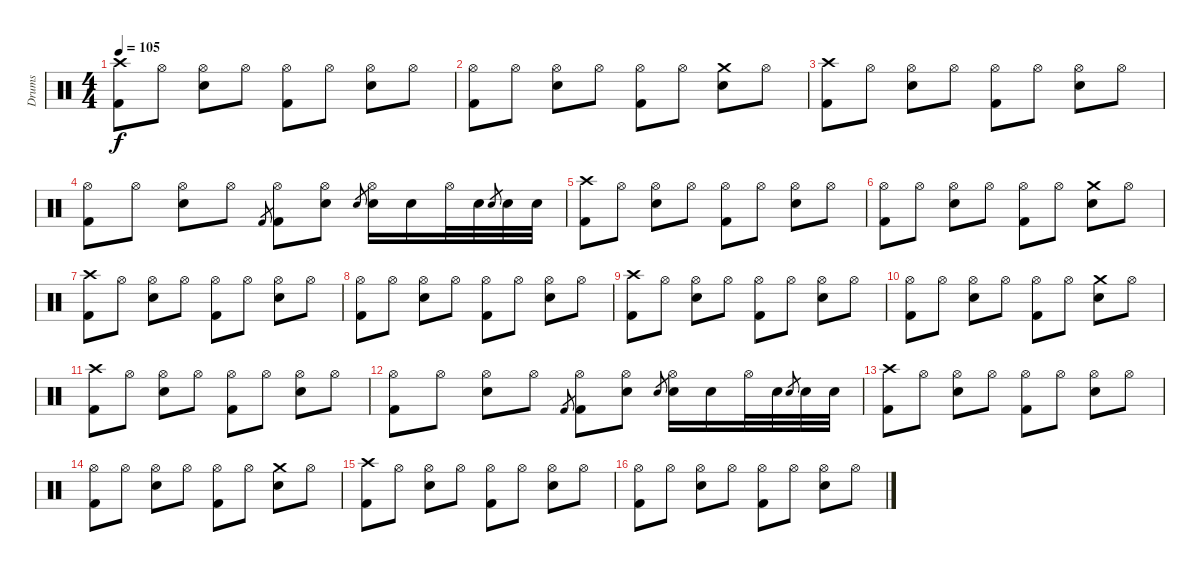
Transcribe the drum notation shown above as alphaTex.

\track ("Drums" "Drums") {instrument percussion}
\staff {score}
\articulation defaults
\ts (4 4)
\tempo 105
\clef neutral
\ks c
("Crash high (hit)" "Kick (hit) 2").8{dy f} "Hi-Hat (open)".8 ("Hi-Hat (open)" "Snare (hit) 2").8 "Hi-Hat (open)".8 ("Hi-Hat (open)" "Kick (hit) 2").8 "Hi-Hat (open)".8 ("Hi-Hat (open)" "Snare (hit) 2").8 "Hi-Hat (open)".8 |
("Hi-Hat (open)" "Kick (hit) 2").8 "Hi-Hat (open)".8 ("Hi-Hat (open)" "Snare (hit) 2").8 "Hi-Hat (open)".8 ("Hi-Hat (open)" "Kick (hit) 2").8 "Hi-Hat (open)".8 ("Crash medium (hit)" "Snare (hit) 2").8 "Hi-Hat (open)".8 |
("Crash high (hit)" "Kick (hit) 2").8 "Hi-Hat (open)".8 ("Hi-Hat (open)" "Snare (hit) 2").8 "Hi-Hat (open)".8 ("Hi-Hat (open)" "Kick (hit) 2").8 "Hi-Hat (open)".8 ("Hi-Hat (open)" "Snare (hit) 2").8 "Hi-Hat (open)".8 |
("Hi-Hat (open)" "Kick (hit) 2").8 "Hi-Hat (open)".8 ("Hi-Hat (open)" "Snare (hit) 2").8 "Hi-Hat (open)".8 "Kick (hit) 2".8{gr} ("Hi-Hat (open)" "Kick (hit) 2").8 ("Hi-Hat (open)" "Snare (hit) 2").8 "Snare (hit) 2".8{gr} ("Hi-Hat (open)" "Snare (hit) 2").16 "Snare (hit) 2".16 "Hi-Hat (open)".32 "Snare (hit) 2".32 "Snare (hit) 2".8{gr} "Snare (hit) 2".32 "Snare (hit) 2".32 |
("Crash high (hit)" "Kick (hit) 2").8 "Hi-Hat (open)".8 ("Hi-Hat (open)" "Snare (hit) 2").8 "Hi-Hat (open)".8 ("Hi-Hat (open)" "Kick (hit) 2").8 "Hi-Hat (open)".8 ("Hi-Hat (open)" "Snare (hit) 2").8 "Hi-Hat (open)".8 |
("Hi-Hat (open)" "Kick (hit) 2").8 "Hi-Hat (open)".8 ("Hi-Hat (open)" "Snare (hit) 2").8 "Hi-Hat (open)".8 ("Hi-Hat (open)" "Kick (hit) 2").8 "Hi-Hat (open)".8 ("Crash medium (hit)" "Snare (hit) 2").8 "Hi-Hat (open)".8 |
("Crash high (hit)" "Kick (hit) 2").8 "Hi-Hat (open)".8 ("Hi-Hat (open)" "Snare (hit) 2").8 "Hi-Hat (open)".8 ("Hi-Hat (open)" "Kick (hit) 2").8 "Hi-Hat (open)".8 ("Hi-Hat (open)" "Snare (hit) 2").8 "Hi-Hat (open)".8 |
("Hi-Hat (open)" "Kick (hit) 2").8 "Hi-Hat (open)".8 ("Hi-Hat (open)" "Snare (hit) 2").8 "Hi-Hat (open)".8 ("Hi-Hat (open)" "Kick (hit) 2").8 "Hi-Hat (open)".8 ("Hi-Hat (open)" "Snare (hit) 2").8 "Hi-Hat (open)".8 |
("Crash high (hit)" "Kick (hit) 2").8 "Hi-Hat (open)".8 ("Hi-Hat (open)" "Snare (hit) 2").8 "Hi-Hat (open)".8 ("Hi-Hat (open)" "Kick (hit) 2").8 "Hi-Hat (open)".8 ("Hi-Hat (open)" "Snare (hit) 2").8 "Hi-Hat (open)".8 |
("Hi-Hat (open)" "Kick (hit) 2").8 "Hi-Hat (open)".8 ("Hi-Hat (open)" "Snare (hit) 2").8 "Hi-Hat (open)".8 ("Hi-Hat (open)" "Kick (hit) 2").8 "Hi-Hat (open)".8 ("Crash medium (hit)" "Snare (hit) 2").8 "Hi-Hat (open)".8 |
("Crash high (hit)" "Kick (hit) 2").8 "Hi-Hat (open)".8 ("Hi-Hat (open)" "Snare (hit) 2").8 "Hi-Hat (open)".8 ("Hi-Hat (open)" "Kick (hit) 2").8 "Hi-Hat (open)".8 ("Hi-Hat (open)" "Snare (hit) 2").8 "Hi-Hat (open)".8 |
("Hi-Hat (open)" "Kick (hit) 2").8 "Hi-Hat (open)".8 ("Hi-Hat (open)" "Snare (hit) 2").8 "Hi-Hat (open)".8 "Kick (hit) 2".8{gr} ("Hi-Hat (open)" "Kick (hit) 2").8 ("Hi-Hat (open)" "Snare (hit) 2").8 "Snare (hit) 2".8{gr} ("Hi-Hat (open)" "Snare (hit) 2").16 "Snare (hit) 2".16 "Hi-Hat (open)".32 "Snare (hit) 2".32 "Snare (hit) 2".8{gr} "Snare (hit) 2".32 "Snare (hit) 2".32 |
("Crash high (hit)" "Kick (hit) 2").8 "Hi-Hat (open)".8 ("Hi-Hat (open)" "Snare (hit) 2").8 "Hi-Hat (open)".8 ("Hi-Hat (open)" "Kick (hit) 2").8 "Hi-Hat (open)".8 ("Hi-Hat (open)" "Snare (hit) 2").8 "Hi-Hat (open)".8 |
("Hi-Hat (open)" "Kick (hit) 2").8 "Hi-Hat (open)".8 ("Hi-Hat (open)" "Snare (hit) 2").8 "Hi-Hat (open)".8 ("Hi-Hat (open)" "Kick (hit) 2").8 "Hi-Hat (open)".8 ("Crash medium (hit)" "Snare (hit) 2").8 "Hi-Hat (open)".8 |
("Crash high (hit)" "Kick (hit) 2").8 "Hi-Hat (open)".8 ("Hi-Hat (open)" "Snare (hit) 2").8 "Hi-Hat (open)".8 ("Hi-Hat (open)" "Kick (hit) 2").8 "Hi-Hat (open)".8 ("Hi-Hat (open)" "Snare (hit) 2").8 "Hi-Hat (open)".8 |
("Hi-Hat (open)" "Kick (hit) 2").8 "Hi-Hat (open)".8 ("Hi-Hat (open)" "Snare (hit) 2").8 "Hi-Hat (open)".8 ("Hi-Hat (open)" "Kick (hit) 2").8 "Hi-Hat (open)".8 ("Hi-Hat (open)" "Snare (hit) 2").8 "Hi-Hat (open)".8
